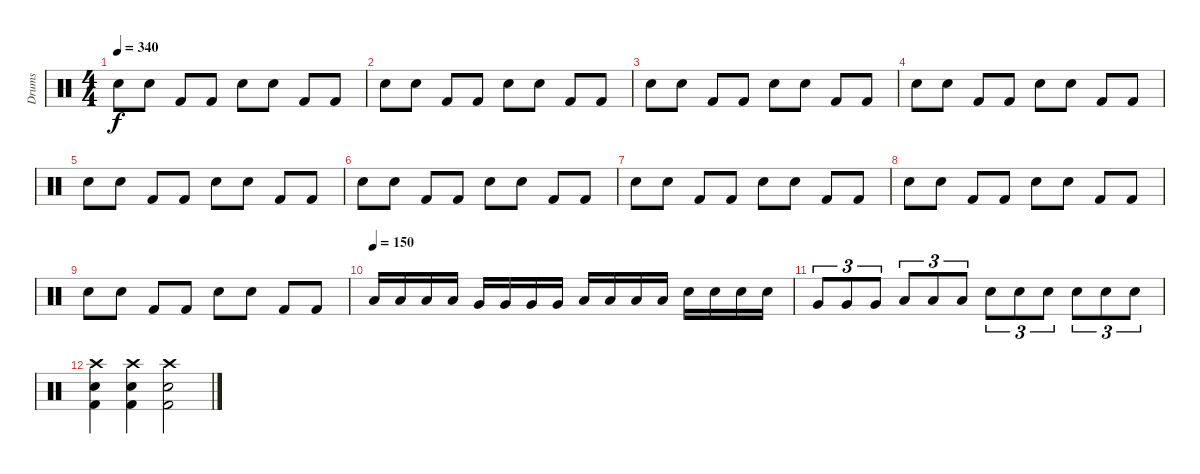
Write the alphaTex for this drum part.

\track ("Drums" "Drums") {instrument percussion}
\staff {score}
\articulation defaults
\ts (4 4)
\tempo 340
\clef neutral
\ks c "Electric Snare (hit)".8{dy f} "Electric Snare (hit)".8 "Kick (hit) 2".8 "Kick (hit) 2".8 "Snare (hit) 2".8 "Snare (hit) 2".8 "Kick (hit) 2".8 "Kick (hit) 2".8
|
"Electric Snare (hit)".8 "Electric Snare (hit)".8 "Kick (hit) 2".8 "Kick (hit) 2".8 "Snare (hit) 2".8 "Snare (hit) 2".8 "Kick (hit) 2".8 "Kick (hit) 2".8 |
"Electric Snare (hit)".8 "Electric Snare (hit)".8 "Kick (hit) 2".8 "Kick (hit) 2".8 "Snare (hit) 2".8 "Snare (hit) 2".8 "Kick (hit) 2".8 "Kick (hit) 2".8 |
"Electric Snare (hit)".8 "Electric Snare (hit)".8 "Kick (hit) 2".8 "Kick (hit) 2".8 "Snare (hit) 2".8 "Snare (hit) 2".8 "Kick (hit) 2".8 "Kick (hit) 2".8 |
"Electric Snare (hit)".8 "Electric Snare (hit)".8 "Kick (hit) 2".8 "Kick (hit) 2".8 "Snare (hit) 2".8 "Snare (hit) 2".8 "Kick (hit) 2".8 "Kick (hit) 2".8 |
"Electric Snare (hit)".8 "Electric Snare (hit)".8 "Kick (hit) 2".8 "Kick (hit) 2".8 "Snare (hit) 2".8 "Snare (hit) 2".8 "Kick (hit) 2".8 "Kick (hit) 2".8 |
"Electric Snare (hit)".8 "Electric Snare (hit)".8 "Kick (hit) 2".8 "Kick (hit) 2".8 "Snare (hit) 2".8 "Snare (hit) 2".8 "Kick (hit) 2".8 "Kick (hit) 2".8 |
"Electric Snare (hit)".8 "Electric Snare (hit)".8 "Kick (hit) 2".8 "Kick (hit) 2".8 "Snare (hit) 2".8 "Snare (hit) 2".8 "Kick (hit) 2".8 "Kick (hit) 2".8 |
"Electric Snare (hit)".8 "Electric Snare (hit)".8 "Kick (hit) 2".8 "Kick (hit) 2".8 "Snare (hit) 2".8 "Snare (hit) 2".8 "Kick (hit) 2".8 "Kick (hit) 2".8 |
\tempo (150)
"Low Tom (hit)".16 "Low Tom (hit)".16 "Low Tom (hit)".16 "Low Tom (hit)".16 "Very Low Tom (hit)".16 "Very Low Tom (hit)".16 "Very Low Tom (hit)".16 "Very Low Tom (hit)".16 "Low Floor Tom (hit)".16 "Low Floor Tom (hit)".16 "Low Floor Tom (hit)".16 "Low Floor Tom (hit)".16 "Electric Snare (hit)".16 "Electric Snare (hit)".16 "Electric Snare (hit)".16 "Electric Snare (hit)".16 |
"Very Low Tom (hit)".8{tu (3 2)} "Very Low Tom (hit)".8{tu (3 2)} "Very Low Tom (hit)".8{tu (3 2)} "Low Floor Tom (hit)".8{tu (3 2)} "Low Floor Tom (hit)".8{tu (3 2)} "Low Floor Tom (hit)".8{tu (3 2)} "Electric Snare (hit)".8{tu (3 2)} "Electric Snare (hit)".8{tu (3 2)} "Electric Snare (hit)".8{tu (3 2)} "Snare (hit) 2".8{tu (3 2)} "Snare (hit) 2".8{tu (3 2)} "Snare (hit) 2".8{tu (3 2)} |
("Crash high (hit)" "Snare (hit) 2" "Kick (hit) 2").4 ("Crash high (hit)" "Snare (hit) 2" "Kick (hit) 2").4 ("Crash high (hit)" "Snare (hit) 2" "Kick (hit) 2").2
